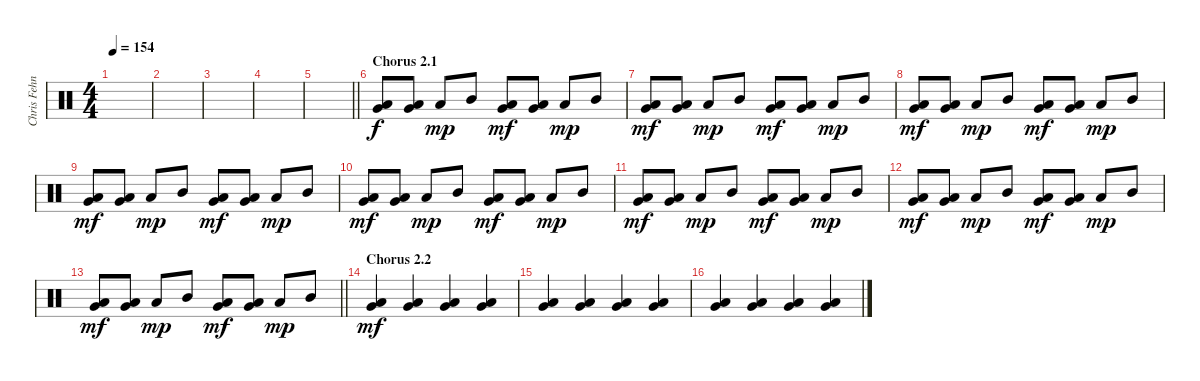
\track ("Chris Fehn" "Chris Fehn") {instrument percussion}
\staff {score}
\articulation defaults
\ts (4 4)
\tempo 154
\clef neutral
\ks c
|
|
|
|
\barLineRight lightlight
|
\section ("" "Chorus 2.1")
("Very Low Tom (hit)" "Low Floor Tom (hit)").8 ("Very Low Tom (hit)" "Low Floor Tom (hit)").8 "Low Tom (hit)".8{dy mp} "Mid Tom (hit)".8 ("Very Low Tom (hit)" "Low Floor Tom (hit)").8{dy mf} ("Very Low Tom (hit)" "Low Floor Tom (hit)").8 "Low Tom (hit)".8{dy mp} "Mid Tom (hit)".8 |
("Very Low Tom (hit)" "Low Floor Tom (hit)").8{dy mf} ("Very Low Tom (hit)" "Low Floor Tom (hit)").8 "Low Tom (hit)".8{dy mp} "Mid Tom (hit)".8 ("Very Low Tom (hit)" "Low Floor Tom (hit)").8{dy mf} ("Very Low Tom (hit)" "Low Floor Tom (hit)").8 "Low Tom (hit)".8{dy mp} "Mid Tom (hit)".8 |
("Very Low Tom (hit)" "Low Floor Tom (hit)").8{dy mf} ("Very Low Tom (hit)" "Low Floor Tom (hit)").8 "Low Tom (hit)".8{dy mp} "Mid Tom (hit)".8 ("Very Low Tom (hit)" "Low Floor Tom (hit)").8{dy mf} ("Very Low Tom (hit)" "Low Floor Tom (hit)").8 "Low Tom (hit)".8{dy mp} "Mid Tom (hit)".8 |
("Very Low Tom (hit)" "Low Floor Tom (hit)").8{dy mf} ("Very Low Tom (hit)" "Low Floor Tom (hit)").8 "Low Tom (hit)".8{dy mp} "Mid Tom (hit)".8 ("Very Low Tom (hit)" "Low Floor Tom (hit)").8{dy mf} ("Very Low Tom (hit)" "Low Floor Tom (hit)").8 "Low Tom (hit)".8{dy mp} "Mid Tom (hit)".8 |
("Very Low Tom (hit)" "Low Floor Tom (hit)").8{dy mf} ("Very Low Tom (hit)" "Low Floor Tom (hit)").8 "Low Tom (hit)".8{dy mp} "Mid Tom (hit)".8 ("Very Low Tom (hit)" "Low Floor Tom (hit)").8{dy mf} ("Very Low Tom (hit)" "Low Floor Tom (hit)").8 "Low Tom (hit)".8{dy mp} "Mid Tom (hit)".8 |
("Very Low Tom (hit)" "Low Floor Tom (hit)").8{dy mf} ("Very Low Tom (hit)" "Low Floor Tom (hit)").8 "Low Tom (hit)".8{dy mp} "Mid Tom (hit)".8 ("Very Low Tom (hit)" "Low Floor Tom (hit)").8{dy mf} ("Very Low Tom (hit)" "Low Floor Tom (hit)").8 "Low Tom (hit)".8{dy mp} "Mid Tom (hit)".8 |
("Very Low Tom (hit)" "Low Floor Tom (hit)").8{dy mf} ("Very Low Tom (hit)" "Low Floor Tom (hit)").8 "Low Tom (hit)".8{dy mp} "Mid Tom (hit)".8 ("Very Low Tom (hit)" "Low Floor Tom (hit)").8{dy mf} ("Very Low Tom (hit)" "Low Floor Tom (hit)").8 "Low Tom (hit)".8{dy mp} "Mid Tom (hit)".8 |
\barLineRight lightlight
("Very Low Tom (hit)" "Low Floor Tom (hit)").8{dy mf} ("Very Low Tom (hit)" "Low Floor Tom (hit)").8 "Low Tom (hit)".8{dy mp} "Mid Tom (hit)".8 ("Very Low Tom (hit)" "Low Floor Tom (hit)").8{dy mf} ("Very Low Tom (hit)" "Low Floor Tom (hit)").8 "Low Tom (hit)".8{dy mp} "Mid Tom (hit)".8 |
\section ("" "Chorus 2.2")
("Very Low Tom (hit)" "Low Floor Tom (hit)").4{dy mf} ("Very Low Tom (hit)" "Low Floor Tom (hit)").4 ("Very Low Tom (hit)" "Low Floor Tom (hit)").4 ("Very Low Tom (hit)" "Low Floor Tom (hit)").4 |
("Very Low Tom (hit)" "Low Floor Tom (hit)").4 ("Very Low Tom (hit)" "Low Floor Tom (hit)").4 ("Very Low Tom (hit)" "Low Floor Tom (hit)").4 ("Very Low Tom (hit)" "Low Floor Tom (hit)").4 |
("Very Low Tom (hit)" "Low Floor Tom (hit)").4 ("Very Low Tom (hit)" "Low Floor Tom (hit)").4 ("Very Low Tom (hit)" "Low Floor Tom (hit)").4 ("Very Low Tom (hit)" "Low Floor Tom (hit)").4
